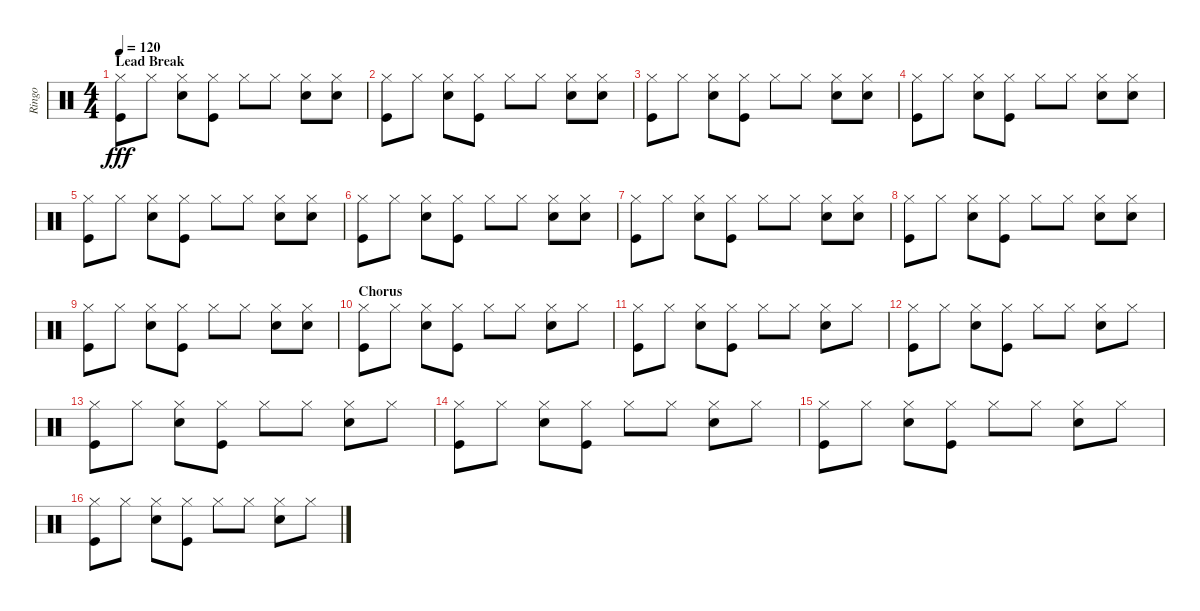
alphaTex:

\track ("Ringo" "Ringo") {instrument percussion}
\staff {score}
\articulation defaults
\ts (4 4)
\section ("" "Lead Break")
\tempo 120
\clef neutral
\ks c
("Hi-Hat (closed)" "Kick (hit)").8{dy fff} "Hi-Hat (closed)".8 ("Hi-Hat (closed)" "Electric Snare (hit)").8 ("Hi-Hat (closed)" "Kick (hit)").8 "Hi-Hat (closed)".8 "Hi-Hat (closed)".8 ("Hi-Hat (closed)" "Electric Snare (hit)").8 ("Hi-Hat (closed)" "Electric Snare (hit)").8 |
("Hi-Hat (closed)" "Kick (hit)").8 "Hi-Hat (closed)".8 ("Hi-Hat (closed)" "Electric Snare (hit)").8 ("Hi-Hat (closed)" "Kick (hit)").8 "Hi-Hat (closed)".8 "Hi-Hat (closed)".8 ("Hi-Hat (closed)" "Electric Snare (hit)").8 ("Hi-Hat (closed)" "Electric Snare (hit)").8 |
("Hi-Hat (closed)" "Kick (hit)").8 "Hi-Hat (closed)".8 ("Hi-Hat (closed)" "Electric Snare (hit)").8 ("Hi-Hat (closed)" "Kick (hit)").8 "Hi-Hat (closed)".8 "Hi-Hat (closed)".8 ("Hi-Hat (closed)" "Electric Snare (hit)").8 ("Hi-Hat (closed)" "Electric Snare (hit)").8 |
("Hi-Hat (closed)" "Kick (hit)").8 "Hi-Hat (closed)".8 ("Hi-Hat (closed)" "Electric Snare (hit)").8 ("Hi-Hat (closed)" "Kick (hit)").8 "Hi-Hat (closed)".8 "Hi-Hat (closed)".8 ("Hi-Hat (closed)" "Electric Snare (hit)").8 ("Hi-Hat (closed)" "Electric Snare (hit)").8 |
("Hi-Hat (closed)" "Kick (hit)").8 "Hi-Hat (closed)".8 ("Hi-Hat (closed)" "Electric Snare (hit)").8 ("Hi-Hat (closed)" "Kick (hit)").8 "Hi-Hat (closed)".8 "Hi-Hat (closed)".8 ("Hi-Hat (closed)" "Electric Snare (hit)").8 ("Hi-Hat (closed)" "Electric Snare (hit)").8 |
("Hi-Hat (closed)" "Kick (hit)").8 "Hi-Hat (closed)".8 ("Hi-Hat (closed)" "Electric Snare (hit)").8 ("Hi-Hat (closed)" "Kick (hit)").8 "Hi-Hat (closed)".8 "Hi-Hat (closed)".8 ("Hi-Hat (closed)" "Electric Snare (hit)").8 ("Hi-Hat (closed)" "Electric Snare (hit)").8 |
("Hi-Hat (closed)" "Kick (hit)").8 "Hi-Hat (closed)".8 ("Hi-Hat (closed)" "Electric Snare (hit)").8 ("Hi-Hat (closed)" "Kick (hit)").8 "Hi-Hat (closed)".8 "Hi-Hat (closed)".8 ("Hi-Hat (closed)" "Electric Snare (hit)").8 ("Hi-Hat (closed)" "Electric Snare (hit)").8 |
("Hi-Hat (closed)" "Kick (hit)").8 "Hi-Hat (closed)".8 ("Hi-Hat (closed)" "Electric Snare (hit)").8 ("Hi-Hat (closed)" "Kick (hit)").8 "Hi-Hat (closed)".8 "Hi-Hat (closed)".8 ("Hi-Hat (closed)" "Electric Snare (hit)").8 ("Hi-Hat (closed)" "Electric Snare (hit)").8 |
("Hi-Hat (closed)" "Kick (hit)").8 "Hi-Hat (closed)".8 ("Hi-Hat (closed)" "Electric Snare (hit)").8 ("Hi-Hat (closed)" "Kick (hit)").8 "Hi-Hat (closed)".8 "Hi-Hat (closed)".8 ("Hi-Hat (closed)" "Electric Snare (hit)").8 ("Hi-Hat (closed)" "Electric Snare (hit)").8 |
\section ("" "Chorus")
("Hi-Hat (closed)" "Kick (hit)").8 "Hi-Hat (closed)".8 ("Hi-Hat (closed)" "Electric Snare (hit)").8 ("Hi-Hat (closed)" "Kick (hit)").8 "Hi-Hat (closed)".8 "Hi-Hat (closed)".8 ("Hi-Hat (closed)" "Electric Snare (hit)").8 "Hi-Hat (closed)".8 |
("Hi-Hat (closed)" "Kick (hit)").8 "Hi-Hat (closed)".8 ("Hi-Hat (closed)" "Electric Snare (hit)").8 ("Hi-Hat (closed)" "Kick (hit)").8 "Hi-Hat (closed)".8 "Hi-Hat (closed)".8 ("Hi-Hat (closed)" "Electric Snare (hit)").8 "Hi-Hat (closed)".8 |
("Hi-Hat (closed)" "Kick (hit)").8 "Hi-Hat (closed)".8 ("Hi-Hat (closed)" "Electric Snare (hit)").8 ("Hi-Hat (closed)" "Kick (hit)").8 "Hi-Hat (closed)".8 "Hi-Hat (closed)".8 ("Hi-Hat (closed)" "Electric Snare (hit)").8 "Hi-Hat (closed)".8 |
("Hi-Hat (closed)" "Kick (hit)").8 "Hi-Hat (closed)".8 ("Hi-Hat (closed)" "Electric Snare (hit)").8 ("Hi-Hat (closed)" "Kick (hit)").8 "Hi-Hat (closed)".8 "Hi-Hat (closed)".8 ("Hi-Hat (closed)" "Electric Snare (hit)").8 "Hi-Hat (closed)".8 |
("Hi-Hat (closed)" "Kick (hit)").8 "Hi-Hat (closed)".8 ("Hi-Hat (closed)" "Electric Snare (hit)").8 ("Hi-Hat (closed)" "Kick (hit)").8 "Hi-Hat (closed)".8 "Hi-Hat (closed)".8 ("Hi-Hat (closed)" "Electric Snare (hit)").8 "Hi-Hat (closed)".8 |
("Hi-Hat (closed)" "Kick (hit)").8 "Hi-Hat (closed)".8 ("Hi-Hat (closed)" "Electric Snare (hit)").8 ("Hi-Hat (closed)" "Kick (hit)").8 "Hi-Hat (closed)".8 "Hi-Hat (closed)".8 ("Hi-Hat (closed)" "Electric Snare (hit)").8 "Hi-Hat (closed)".8 |
("Hi-Hat (closed)" "Kick (hit)").8 "Hi-Hat (closed)".8 ("Hi-Hat (closed)" "Electric Snare (hit)").8 ("Hi-Hat (closed)" "Kick (hit)").8 "Hi-Hat (closed)".8 "Hi-Hat (closed)".8 ("Hi-Hat (closed)" "Electric Snare (hit)").8 "Hi-Hat (closed)".8
